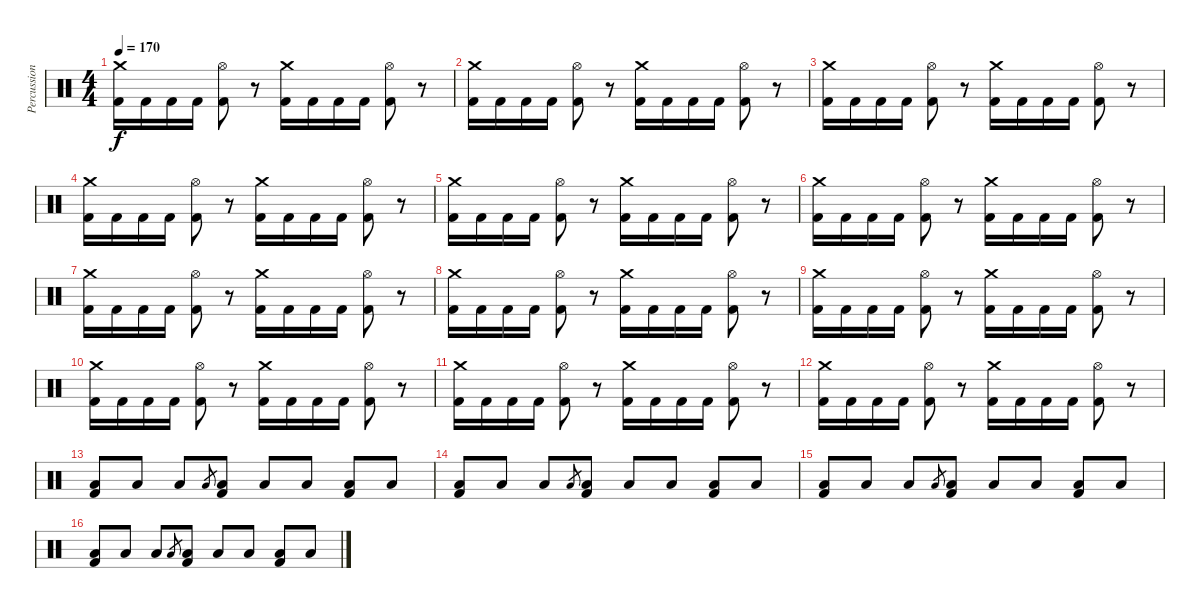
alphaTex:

\track ("Percussion" "Percussion") {instrument percussion}
\staff {score}
\articulation defaults
\ts (4 4)
\tempo 170
\clef neutral
\ks c
("Crash medium (hit)" "Kick (hit) 2").16{dy f} "Kick (hit) 2".16 "Kick (hit) 2".16 "Kick (hit) 2".16 ("Hi-Hat (open)" "Kick (hit) 2").8 r.8 ("Crash medium (hit)" "Kick (hit) 2").16 "Kick (hit) 2".16 "Kick (hit) 2".16 "Kick (hit) 2".16 ("Hi-Hat (open)" "Kick (hit) 2").8 r.8 |
("Crash medium (hit)" "Kick (hit) 2").16 "Kick (hit) 2".16 "Kick (hit) 2".16 "Kick (hit) 2".16 ("Hi-Hat (open)" "Kick (hit) 2").8 r.8 ("Crash medium (hit)" "Kick (hit) 2").16 "Kick (hit) 2".16 "Kick (hit) 2".16 "Kick (hit) 2".16 ("Hi-Hat (open)" "Kick (hit) 2").8 r.8 |
("Crash medium (hit)" "Kick (hit) 2").16 "Kick (hit) 2".16 "Kick (hit) 2".16 "Kick (hit) 2".16 ("Hi-Hat (open)" "Kick (hit) 2").8 r.8 ("Crash medium (hit)" "Kick (hit) 2").16 "Kick (hit) 2".16 "Kick (hit) 2".16 "Kick (hit) 2".16 ("Hi-Hat (open)" "Kick (hit) 2").8 r.8 |
("Crash medium (hit)" "Kick (hit) 2").16 "Kick (hit) 2".16 "Kick (hit) 2".16 "Kick (hit) 2".16 ("Hi-Hat (open)" "Kick (hit) 2").8 r.8 ("Crash medium (hit)" "Kick (hit) 2").16 "Kick (hit) 2".16 "Kick (hit) 2".16 "Kick (hit) 2".16 ("Hi-Hat (open)" "Kick (hit) 2").8 r.8 |
("Crash medium (hit)" "Kick (hit) 2").16 "Kick (hit) 2".16 "Kick (hit) 2".16 "Kick (hit) 2".16 ("Hi-Hat (open)" "Kick (hit) 2").8 r.8 ("Crash medium (hit)" "Kick (hit) 2").16 "Kick (hit) 2".16 "Kick (hit) 2".16 "Kick (hit) 2".16 ("Hi-Hat (open)" "Kick (hit) 2").8 r.8 |
("Crash medium (hit)" "Kick (hit) 2").16 "Kick (hit) 2".16 "Kick (hit) 2".16 "Kick (hit) 2".16 ("Hi-Hat (open)" "Kick (hit) 2").8 r.8 ("Crash medium (hit)" "Kick (hit) 2").16 "Kick (hit) 2".16 "Kick (hit) 2".16 "Kick (hit) 2".16 ("Hi-Hat (open)" "Kick (hit) 2").8 r.8 |
("Crash medium (hit)" "Kick (hit) 2").16 "Kick (hit) 2".16 "Kick (hit) 2".16 "Kick (hit) 2".16 ("Hi-Hat (open)" "Kick (hit) 2").8 r.8 ("Crash medium (hit)" "Kick (hit) 2").16 "Kick (hit) 2".16 "Kick (hit) 2".16 "Kick (hit) 2".16 ("Hi-Hat (open)" "Kick (hit) 2").8 r.8 |
("Crash medium (hit)" "Kick (hit) 2").16 "Kick (hit) 2".16 "Kick (hit) 2".16 "Kick (hit) 2".16 ("Hi-Hat (open)" "Kick (hit) 2").8 r.8 ("Crash medium (hit)" "Kick (hit) 2").16 "Kick (hit) 2".16 "Kick (hit) 2".16 "Kick (hit) 2".16 ("Hi-Hat (open)" "Kick (hit) 2").8 r.8 |
("Crash medium (hit)" "Kick (hit) 2").16 "Kick (hit) 2".16 "Kick (hit) 2".16 "Kick (hit) 2".16 ("Hi-Hat (open)" "Kick (hit) 2").8 r.8 ("Crash medium (hit)" "Kick (hit) 2").16 "Kick (hit) 2".16 "Kick (hit) 2".16 "Kick (hit) 2".16 ("Hi-Hat (open)" "Kick (hit) 2").8 r.8 |
("Crash medium (hit)" "Kick (hit) 2").16 "Kick (hit) 2".16 "Kick (hit) 2".16 "Kick (hit) 2".16 ("Hi-Hat (open)" "Kick (hit) 2").8 r.8 ("Crash medium (hit)" "Kick (hit) 2").16 "Kick (hit) 2".16 "Kick (hit) 2".16 "Kick (hit) 2".16 ("Hi-Hat (open)" "Kick (hit) 2").8 r.8 |
("Crash medium (hit)" "Kick (hit) 2").16 "Kick (hit) 2".16 "Kick (hit) 2".16 "Kick (hit) 2".16 ("Hi-Hat (open)" "Kick (hit) 2").8 r.8 ("Crash medium (hit)" "Kick (hit) 2").16 "Kick (hit) 2".16 "Kick (hit) 2".16 "Kick (hit) 2".16 ("Hi-Hat (open)" "Kick (hit) 2").8 r.8 |
("Crash medium (hit)" "Kick (hit) 2").16 "Kick (hit) 2".16 "Kick (hit) 2".16 "Kick (hit) 2".16 ("Hi-Hat (open)" "Kick (hit) 2").8 r.8 ("Crash medium (hit)" "Kick (hit) 2").16 "Kick (hit) 2".16 "Kick (hit) 2".16 "Kick (hit) 2".16 ("Hi-Hat (open)" "Kick (hit) 2").8 r.8 |
("Low Tom (hit)" "Kick (hit) 2").8 "Low Tom (hit)".8 "Low Tom (hit)".8 "Low Tom (hit)".8{gr} ("Low Tom (hit)" "Kick (hit) 2").8 "Low Tom (hit)".8 "Low Tom (hit)".8 ("Low Tom (hit)" "Kick (hit) 2").8 "Low Tom (hit)".8 |
("Low Tom (hit)" "Kick (hit) 2").8 "Low Tom (hit)".8 "Low Tom (hit)".8 "Low Tom (hit)".8{gr} ("Low Tom (hit)" "Kick (hit) 2").8 "Low Tom (hit)".8 "Low Tom (hit)".8 ("Low Tom (hit)" "Kick (hit) 2").8 "Low Tom (hit)".8 |
("Low Tom (hit)" "Kick (hit) 2").8 "Low Tom (hit)".8 "Low Tom (hit)".8 "Low Tom (hit)".8{gr} ("Low Tom (hit)" "Kick (hit) 2").8 "Low Tom (hit)".8 "Low Tom (hit)".8 ("Low Tom (hit)" "Kick (hit) 2").8 "Low Tom (hit)".8 |
("Low Tom (hit)" "Kick (hit) 2").8 "Low Tom (hit)".8 "Low Tom (hit)".8 "Low Tom (hit)".8{gr} ("Low Tom (hit)" "Kick (hit) 2").8 "Low Tom (hit)".8 "Low Tom (hit)".8 ("Low Tom (hit)" "Kick (hit) 2").8 "Low Tom (hit)".8
